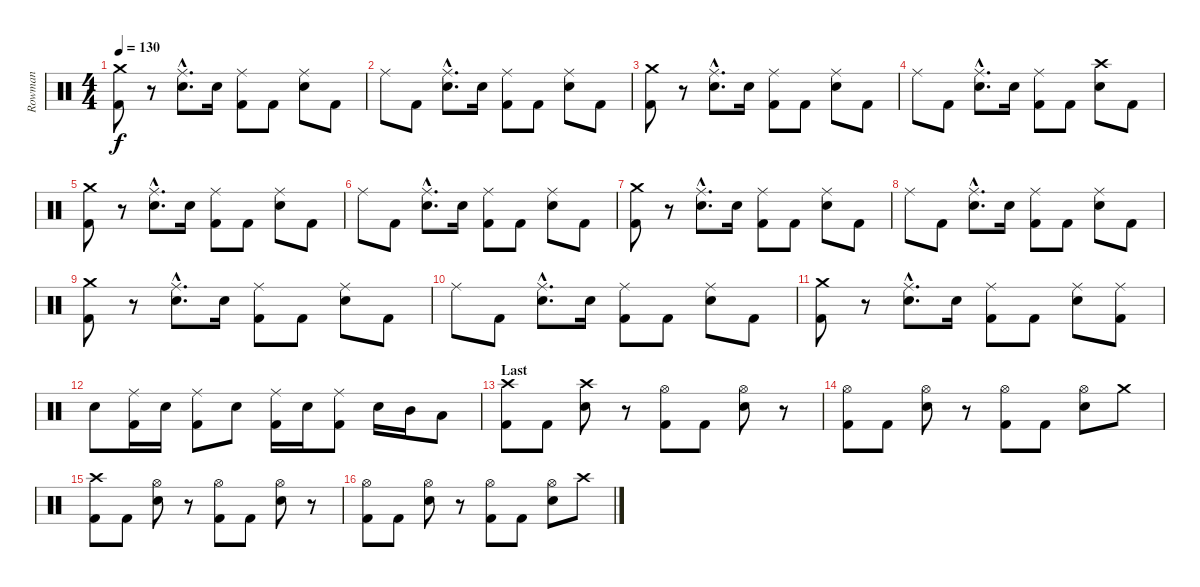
\track ("Rowman" "Rowman") {instrument percussion}
\staff {score}
\articulation defaults
\ts (4 4)
\tempo 130
\clef neutral
\ks c
("Kick (hit) 2" "Crash medium (hit)").8{dy f} r.8 ("Electric Snare (hit)"{hac} "Ride (middle)"{hac}).8{d} "Electric Snare (hit)".16 ("Kick (hit) 2" "Ride (middle)").8 "Kick (hit) 2".8 ("Electric Snare (hit)" "Ride (middle)").8 "Kick (hit) 2".8 |
"Ride (middle)".8 "Kick (hit) 2".8 ("Electric Snare (hit)"{hac} "Ride (middle)"{hac}).8{d} "Electric Snare (hit)".16 ("Kick (hit) 2" "Ride (middle)").8 "Kick (hit) 2".8 ("Electric Snare (hit)" "Ride (middle)").8 "Kick (hit) 2".8 |
("Kick (hit) 2" "Crash medium (hit)").8 r.8 ("Electric Snare (hit)"{hac} "Ride (middle)"{hac}).8{d} "Electric Snare (hit)".16 ("Kick (hit) 2" "Ride (middle)").8 "Kick (hit) 2".8 ("Electric Snare (hit)" "Ride (middle)").8 "Kick (hit) 2".8 |
"Ride (middle)".8 "Kick (hit) 2".8 ("Electric Snare (hit)"{hac} "Ride (middle)"{hac}).8{d} "Electric Snare (hit)".16 ("Kick (hit) 2" "Ride (middle)").8 "Kick (hit) 2".8 ("Electric Snare (hit)" "Crash high (hit)").8 "Kick (hit) 2".8 |
("Kick (hit) 2" "Crash medium (hit)").8 r.8 ("Electric Snare (hit)"{hac} "Ride (middle)"{hac}).8{d} "Electric Snare (hit)".16 ("Kick (hit) 2" "Ride (middle)").8 "Kick (hit) 2".8 ("Electric Snare (hit)" "Ride (middle)").8 "Kick (hit) 2".8 |
"Ride (middle)".8 "Kick (hit) 2".8 ("Electric Snare (hit)"{hac} "Ride (middle)"{hac}).8{d} "Electric Snare (hit)".16 ("Kick (hit) 2" "Ride (middle)").8 "Kick (hit) 2".8 ("Electric Snare (hit)" "Ride (middle)").8 "Kick (hit) 2".8 |
("Kick (hit) 2" "Crash medium (hit)").8 r.8 ("Electric Snare (hit)"{hac} "Ride (middle)"{hac}).8{d} "Electric Snare (hit)".16 ("Kick (hit) 2" "Ride (middle)").8 "Kick (hit) 2".8 ("Electric Snare (hit)" "Ride (middle)").8 "Kick (hit) 2".8 |
"Ride (middle)".8 "Kick (hit) 2".8 ("Electric Snare (hit)"{hac} "Ride (middle)"{hac}).8{d} "Electric Snare (hit)".16 ("Kick (hit) 2" "Ride (middle)").8 "Kick (hit) 2".8 ("Electric Snare (hit)" "Ride (middle)").8 "Kick (hit) 2".8 |
("Kick (hit) 2" "Crash medium (hit)").8 r.8 ("Electric Snare (hit)"{hac} "Ride (middle)"{hac}).8{d} "Electric Snare (hit)".16 ("Kick (hit) 2" "Ride (middle)").8 "Kick (hit) 2".8 ("Electric Snare (hit)" "Ride (middle)").8 "Kick (hit) 2".8 |
"Ride (middle)".8 "Kick (hit) 2".8 ("Electric Snare (hit)"{hac} "Ride (middle)"{hac}).8{d} "Electric Snare (hit)".16 ("Kick (hit) 2" "Ride (middle)").8 "Kick (hit) 2".8 ("Electric Snare (hit)" "Ride (middle)").8 "Kick (hit) 2".8 |
("Kick (hit) 2" "Crash medium (hit)").8 r.8 ("Electric Snare (hit)"{hac} "Ride (middle)"{hac}).8{d} "Electric Snare (hit)".16 ("Kick (hit) 2" "Ride (middle)").8 "Kick (hit) 2".8 ("Electric Snare (hit)" "Ride (middle)").8 ("Kick (hit) 2" "Ride (middle)").8 |
"Electric Snare (hit)".8 ("Kick (hit) 2" "Ride (middle)").16 "Electric Snare (hit)".16 ("Kick (hit) 2" "Ride (middle)").8 "Electric Snare (hit)".8 ("Kick (hit) 2" "Ride (middle)").16 "Electric Snare (hit)".16 ("Kick (hit) 2" "Ride (middle)").8 "Electric Snare (hit)".16 "Mid Tom (hit)".16 "Low Tom (hit)".8 |
\section ("" "Last")
("Kick (hit) 2" "Crash high (hit)").8 "Kick (hit) 2".8 ("Electric Snare (hit)" "Crash high (hit)").8 r.8 ("Kick (hit) 2" "Hi-Hat (open)").8 "Kick (hit) 2".8 ("Electric Snare (hit)" "Hi-Hat (open)").8 r.8 |
("Kick (hit) 2" "Hi-Hat (open)").8 "Kick (hit) 2".8 ("Electric Snare (hit)" "Hi-Hat (open)").8 r.8 ("Kick (hit) 2" "Hi-Hat (open)").8 "Kick (hit) 2".8 ("Electric Snare (hit)" "Hi-Hat (open)").8 "Crash medium (hit)".8 |
("Kick (hit) 2" "Crash high (hit)").8 "Kick (hit) 2".8 ("Electric Snare (hit)" "Hi-Hat (open)").8 r.8 ("Kick (hit) 2" "Hi-Hat (open)").8 "Kick (hit) 2".8 ("Electric Snare (hit)" "Hi-Hat (open)").8 r.8 |
("Kick (hit) 2" "Hi-Hat (open)").8 "Kick (hit) 2".8 ("Electric Snare (hit)" "Hi-Hat (open)").8 r.8 ("Kick (hit) 2" "Hi-Hat (open)").8 "Kick (hit) 2".8 ("Electric Snare (hit)" "Hi-Hat (open)").8 "Crash high (hit)".8
